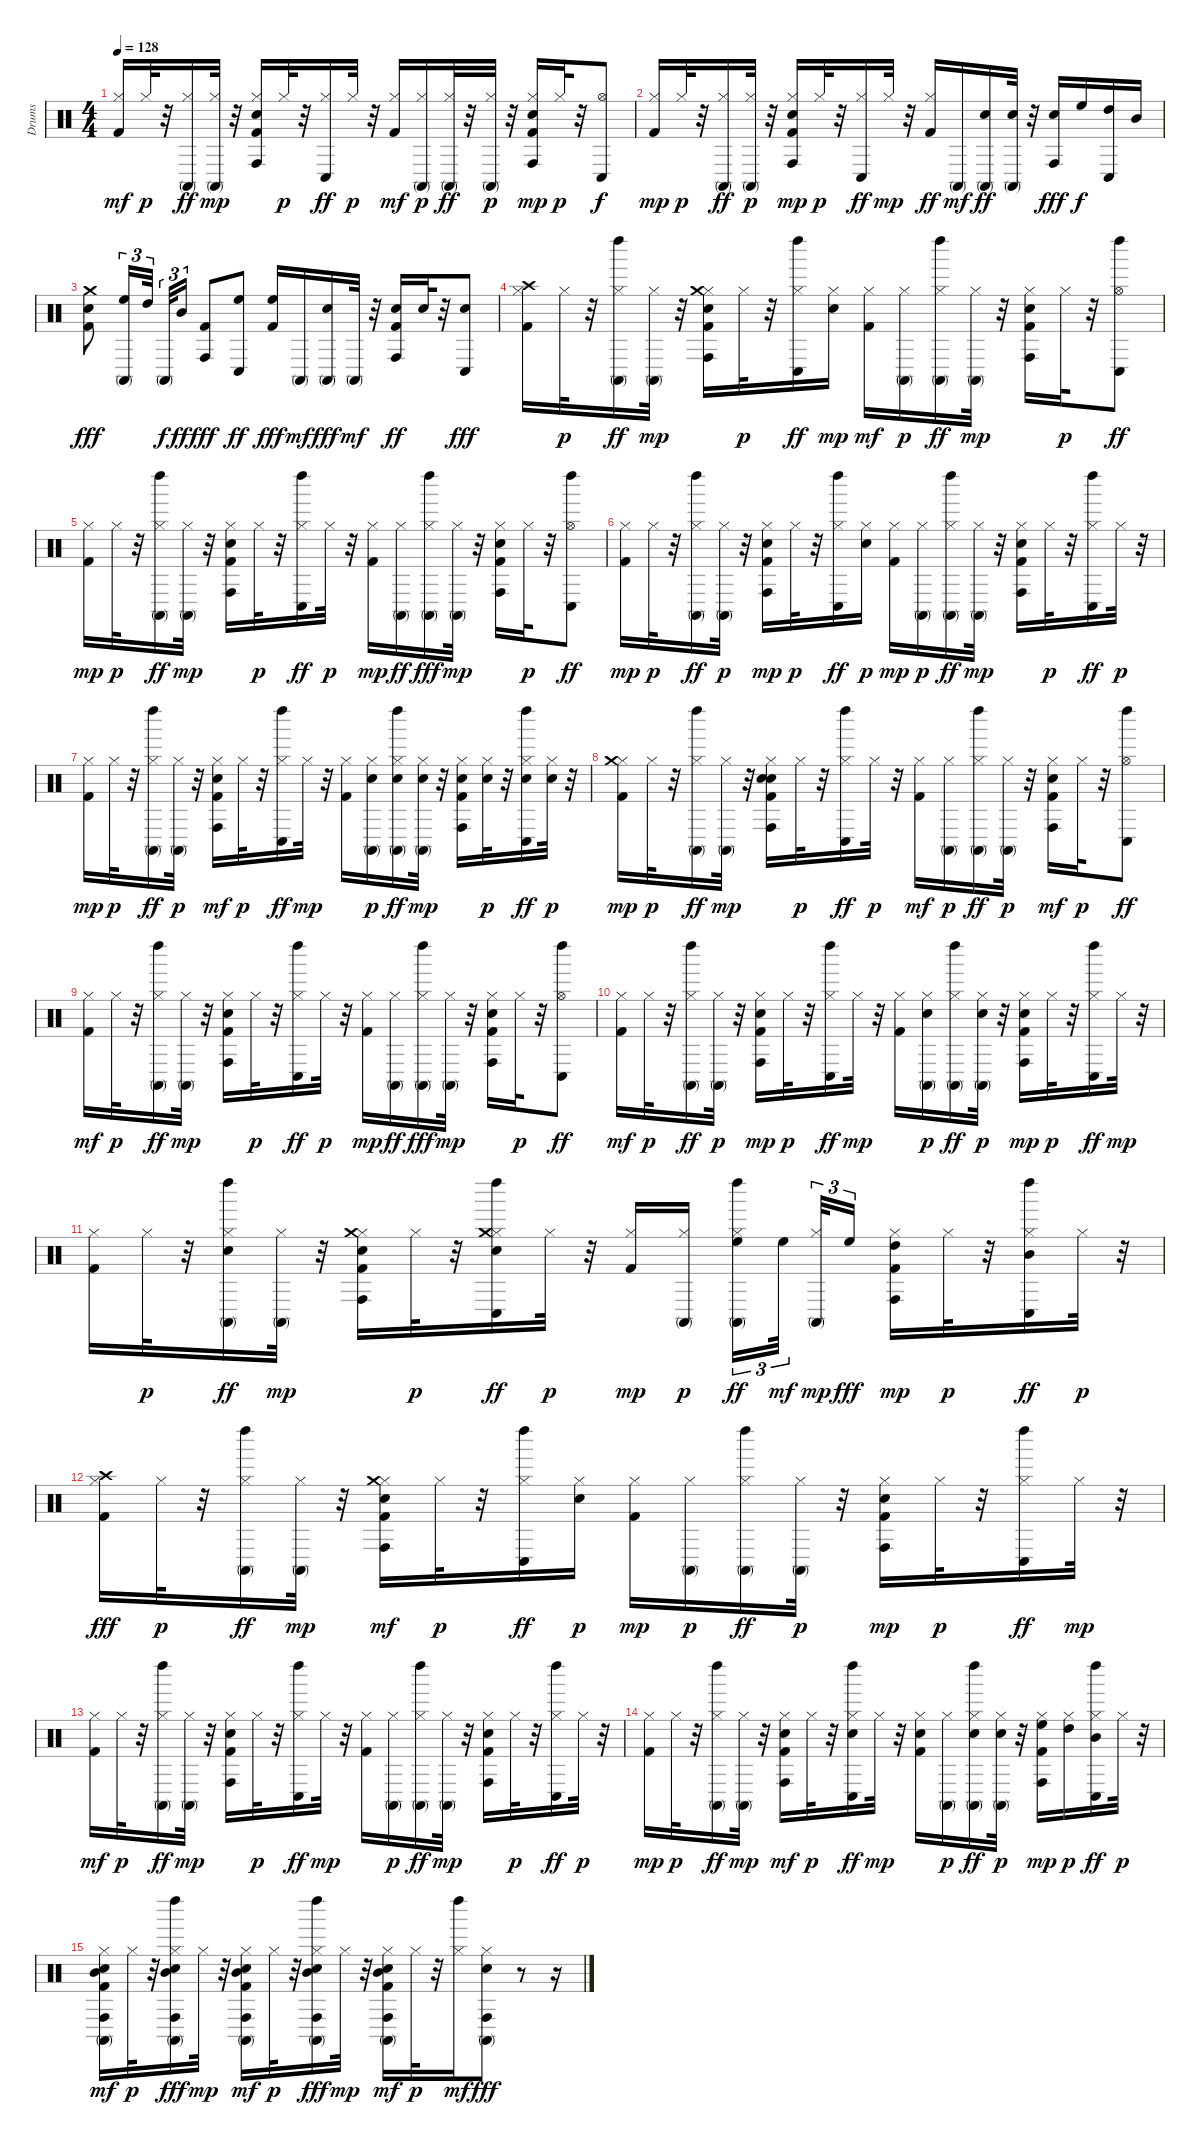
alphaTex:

\track ("Drums" "Drums") {instrument percussion}
\staff {score}
\articulation defaults
\ts (4 4)
\tempo 128
\clef neutral
\ks c
("Kick (hit) 2" "Hi-Hat (closed)").16{dy mf} "Hi-Hat (closed)".32{dy p} r.32 ("Conga high (mute)" "Hi-Hat (closed)").16{dy ff} ("Conga high (mute)" "Hi-Hat (closed)").32{dy mp} r.32 ("Kick (hit) 2" "Conga high (hit)" "Electric Snare (hit)" "Hi-Hat (closed)").16 "Hi-Hat (closed)".32{dy p} r.32 ("Conga low (hit)" "Hi-Hat (closed)").16{dy ff} "Hi-Hat (closed)".32{dy p} r.32 ("Kick (hit) 2" "Hi-Hat (closed)").16{dy mf} ("Conga high (mute)" "Hi-Hat (closed)").16{dy p} ("Conga high (mute)" "Hi-Hat (closed)").32{dy ff} r.32 ("Conga high (mute)" "Hi-Hat (closed)").32{dy p} r.32 ("Kick (hit) 2" "Conga high (hit)" "Electric Snare (hit)" "Hi-Hat (closed)").16{dy mp} "Hi-Hat (closed)".32{dy p} r.32 ("Conga low (hit)" "Hi-Hat (open)").8{dy f} |
("Kick (hit) 2" "Hi-Hat (closed)").16{dy mp} "Hi-Hat (closed)".32{dy p} r.32 ("Conga high (mute)" "Hi-Hat (closed)").16{dy ff} ("Conga high (mute)" "Hi-Hat (closed)").32{dy p} r.32 ("Kick (hit) 2" "Conga high (hit)" "Electric Snare (hit)" "Hi-Hat (closed)").16{dy mp} "Hi-Hat (closed)".32{dy p} r.32 ("Conga low (hit)" "Hi-Hat (closed)").16{dy ff} "Hi-Hat (closed)".32{dy mp} r.32 ("Kick (hit) 2" "Hi-Hat (closed)").16{dy ff} "Conga high (mute)".16{dy mf} ("Conga high (mute)" "Electric Snare (hit)").16{dy ff} ("Conga high (mute)" "Electric Snare (hit)").32 r.32 ("Conga high (hit)" "Electric Snare (hit)").16{dy fff} "High Floor Tom (hit)".16{dy f} ("Conga low (hit)" "High Tom (hit)").16 "Mid Tom (hit)".16 |
("Kick (hit) 2" "Electric Snare (hit)" "Crash medium (hit)").8{dy fff} ("Conga high (mute)" "High Floor Tom (hit)").16{tu (3 2)} "High Tom (hit)".32{tu (3 2) beam splitsecondary} "Conga high (mute)".32{tu (3 2) dy f} "Mid Tom (hit)".16{tu (3 2) dy ff} ("Kick (hit) 2" "Conga high (hit)").8{dy fff} ("Conga low (hit)" "High Floor Tom (hit)").8{dy ff} ("Kick (hit) 2" "High Floor Tom (hit)").16{dy fff} "Conga high (mute)".16{dy mf} ("Conga high (mute)" "Electric Snare (hit)").16{dy fff} "Conga high (mute)".32{dy mf} r.32 ("Kick (hit) 2" "Conga high (hit)" "Electric Snare (hit)").16{dy ff} "Electric Snare (hit)".32 r.32 ("Conga low (hit)" "Electric Snare (hit)").8{dy fff} |
("Kick (hit) 2" "Hi-Hat (closed)" "Crash high (hit)").16 "Hi-Hat (closed)".32{dy p} r.32 ("Conga high (mute)" "Left Maraca (hit)" "Hi-Hat (closed)").16{dy ff} ("Conga high (mute)" "Hi-Hat (closed)").32{dy mp} r.32 ("Kick (hit) 2" "Conga high (hit)" "Electric Snare (hit)" "Hi-Hat (closed)" "Crash medium (hit)").16 "Hi-Hat (closed)".32{dy p} r.32 ("Conga low (hit)" "Left Maraca (hit)" "Hi-Hat (closed)").16{dy ff} ("Electric Snare (hit)" "Hi-Hat (closed)").16{dy mp} ("Kick (hit) 2" "Hi-Hat (closed)").16{dy mf} ("Conga high (mute)" "Hi-Hat (closed)").16{dy p} ("Conga high (mute)" "Left Maraca (hit)" "Hi-Hat (closed)").16{dy ff} ("Conga high (mute)" "Hi-Hat (closed)").32{dy mp} r.32 ("Kick (hit) 2" "Conga high (hit)" "Electric Snare (hit)" "Hi-Hat (closed)").16 "Hi-Hat (closed)".32{dy p} r.32 ("Conga low (hit)" "Left Maraca (hit)" "Hi-Hat (open)").8{dy ff} |
("Kick (hit) 2" "Hi-Hat (closed)").16{dy mp} "Hi-Hat (closed)".32{dy p} r.32 ("Conga high (mute)" "Left Maraca (hit)" "Hi-Hat (closed)").16{dy ff} ("Conga high (mute)" "Hi-Hat (closed)").32{dy mp} r.32 ("Kick (hit) 2" "Conga high (hit)" "Electric Snare (hit)" "Hi-Hat (closed)").16 "Hi-Hat (closed)".32{dy p} r.32 ("Conga low (hit)" "Left Maraca (hit)" "Hi-Hat (closed)").16{dy ff} "Hi-Hat (closed)".32{dy p} r.32 ("Kick (hit) 2" "Hi-Hat (closed)").16{dy mp} ("Conga high (mute)" "Hi-Hat (closed)").16{dy ff} ("Conga high (mute)" "Left Maraca (hit)" "Hi-Hat (closed)").16{dy fff} ("Conga high (mute)" "Hi-Hat (closed)").32{dy mp} r.32 ("Kick (hit) 2" "Conga high (hit)" "Electric Snare (hit)" "Hi-Hat (closed)").16 "Hi-Hat (closed)".32{dy p} r.32 ("Conga low (hit)" "Left Maraca (hit)" "Hi-Hat (open)").8{dy ff} |
("Kick (hit) 2" "Hi-Hat (closed)").16{dy mp} "Hi-Hat (closed)".32{dy p} r.32 ("Conga high (mute)" "Left Maraca (hit)" "Hi-Hat (closed)").16{dy ff} ("Conga high (mute)" "Hi-Hat (closed)").32{dy p} r.32 ("Kick (hit) 2" "Conga high (hit)" "Electric Snare (hit)" "Hi-Hat (closed)").16{dy mp} "Hi-Hat (closed)".32{dy p} r.32 ("Conga low (hit)" "Left Maraca (hit)" "Hi-Hat (closed)").16{dy ff} ("Electric Snare (hit)" "Hi-Hat (closed)").16{dy p} ("Kick (hit) 2" "Hi-Hat (closed)").16{dy mp} ("Conga high (mute)" "Hi-Hat (closed)").16{dy p} ("Conga high (mute)" "Left Maraca (hit)" "Hi-Hat (closed)").16{dy ff} ("Conga high (mute)" "Hi-Hat (closed)").32{dy mp} r.32 ("Kick (hit) 2" "Conga high (hit)" "Electric Snare (hit)" "Hi-Hat (closed)").16 "Hi-Hat (closed)".32{dy p} r.32 ("Conga low (hit)" "Left Maraca (hit)" "Hi-Hat (closed)").16{dy ff} "Hi-Hat (closed)".32{dy p} r.32 |
("Kick (hit) 2" "Hi-Hat (closed)").16{dy mp} "Hi-Hat (closed)".32{dy p} r.32 ("Conga high (mute)" "Left Maraca (hit)" "Hi-Hat (closed)").16{dy ff} ("Conga high (mute)" "Hi-Hat (closed)").32{dy p} r.32 ("Kick (hit) 2" "Conga high (hit)" "Electric Snare (hit)" "Hi-Hat (closed)").16{dy mf} "Hi-Hat (closed)".32{dy p} r.32 ("Conga low (hit)" "Left Maraca (hit)" "Hi-Hat (closed)").16{dy ff} "Hi-Hat (closed)".32{dy mp} r.32 ("Kick (hit) 2" "Hi-Hat (closed)").16 ("Conga high (mute)" "Electric Snare (hit)" "Hi-Hat (closed)").16{dy p} ("Conga high (mute)" "Left Maraca (hit)" "Electric Snare (hit)" "Hi-Hat (closed)").16{dy ff} ("Conga high (mute)" "Electric Snare (hit)" "Hi-Hat (closed)").32{dy mp} r.32 ("Kick (hit) 2" "Conga high (hit)" "Electric Snare (hit)" "Hi-Hat (closed)").16 ("Electric Snare (hit)" "Hi-Hat (closed)").32{dy p} r.32 ("Conga low (hit)" "Left Maraca (hit)" "Electric Snare (hit)" "Hi-Hat (closed)").16{dy ff} ("Electric Snare (hit)" "Hi-Hat (closed)").32{dy p} r.32 |
("Kick (hit) 2" "Hi-Hat (closed)" "Crash medium (hit)").16{dy mp} "Hi-Hat (closed)".32{dy p} r.32 ("Conga high (mute)" "Left Maraca (hit)" "Hi-Hat (closed)").16{dy ff} ("Conga high (mute)" "Hi-Hat (closed)").32{dy mp} r.32 ("Kick (hit) 2" "Hand Clap (hit)" "Conga high (hit)" "Electric Snare (hit)" "Hi-Hat (closed)").16 "Hi-Hat (closed)".32{dy p} r.32 ("Conga low (hit)" "Left Maraca (hit)" "Hi-Hat (closed)").16{dy ff} "Hi-Hat (closed)".32{dy p} r.32 ("Kick (hit) 2" "Hi-Hat (closed)").16{dy mf} ("Conga high (mute)" "Hi-Hat (closed)").16{dy p} ("Conga high (mute)" "Left Maraca (hit)" "Hi-Hat (closed)").16{dy ff} ("Conga high (mute)" "Hi-Hat (closed)").32{dy p} r.32 ("Kick (hit) 2" "Conga high (hit)" "Electric Snare (hit)" "Hi-Hat (closed)").16{dy mf} "Hi-Hat (closed)".32{dy p} r.32 ("Conga low (hit)" "Left Maraca (hit)" "Hi-Hat (open)").8{dy ff} |
("Kick (hit) 2" "Hi-Hat (closed)").16{dy mf} "Hi-Hat (closed)".32{dy p} r.32 ("Conga high (mute)" "Left Maraca (hit)" "Hi-Hat (closed)").16{dy ff} ("Conga high (mute)" "Hi-Hat (closed)").32{dy mp} r.32 ("Kick (hit) 2" "Conga high (hit)" "Electric Snare (hit)" "Hi-Hat (closed)").16 "Hi-Hat (closed)".32{dy p} r.32 ("Conga low (hit)" "Left Maraca (hit)" "Hi-Hat (closed)").16{dy ff} "Hi-Hat (closed)".32{dy p} r.32 ("Kick (hit) 2" "Hi-Hat (closed)").16{dy mp} ("Conga high (mute)" "Hi-Hat (closed)").16{dy ff} ("Conga high (mute)" "Left Maraca (hit)" "Hi-Hat (closed)").16{dy fff} ("Conga high (mute)" "Hi-Hat (closed)").32{dy mp} r.32 ("Kick (hit) 2" "Conga high (hit)" "Electric Snare (hit)" "Hi-Hat (closed)").16 "Hi-Hat (closed)".32{dy p} r.32 ("Conga low (hit)" "Left Maraca (hit)" "Hi-Hat (open)").8{dy ff} |
("Kick (hit) 2" "Hi-Hat (closed)").16{dy mf} "Hi-Hat (closed)".32{dy p} r.32 ("Conga high (mute)" "Left Maraca (hit)" "Hi-Hat (closed)").16{dy ff} ("Conga high (mute)" "Hi-Hat (closed)").32{dy p} r.32 ("Kick (hit) 2" "Conga high (hit)" "Electric Snare (hit)" "Hi-Hat (closed)").16{dy mp} "Hi-Hat (closed)".32{dy p} r.32 ("Conga low (hit)" "Left Maraca (hit)" "Hi-Hat (closed)").16{dy ff} "Hi-Hat (closed)".32{dy mp} r.32 ("Kick (hit) 2" "Hi-Hat (closed)").16 ("Conga high (mute)" "Electric Snare (hit)" "Hi-Hat (closed)").16{dy p} ("Conga high (mute)" "Left Maraca (hit)" "Hi-Hat (closed)").16{dy ff} ("Conga high (mute)" "Electric Snare (hit)" "Hi-Hat (closed)").32{dy p} r.32 ("Kick (hit) 2" "Conga high (hit)" "Electric Snare (hit)" "Hi-Hat (closed)").16{dy mp} "Hi-Hat (closed)".32{dy p} r.32 ("Conga low (hit)" "Left Maraca (hit)" "Hi-Hat (closed)").16{dy ff} "Hi-Hat (closed)".32{dy mp} r.32 |
("Kick (hit) 2" "Hi-Hat (closed)").16 "Hi-Hat (closed)".32{dy p} r.32 ("Conga high (mute)" "Left Maraca (hit)" "Electric Snare (hit)" "Hi-Hat (closed)").16{dy ff} ("Conga high (mute)" "Hi-Hat (closed)").32{dy mp} r.32 ("Kick (hit) 2" "Conga high (hit)" "Electric Snare (hit)" "Hi-Hat (closed)" "Crash medium (hit)").16 "Hi-Hat (closed)".32{dy p} r.32 ("Conga low (hit)" "Left Maraca (hit)" "Electric Snare (hit)" "Hi-Hat (closed)" "Crash medium (hit)").16{dy ff} "Hi-Hat (closed)".32{dy p} r.32 ("Kick (hit) 2" "Hi-Hat (closed)").16{dy mp} ("Conga high (mute)" "Hi-Hat (closed)").16{dy p beam splitsecondary} ("Conga high (mute)" "Left Maraca (hit)" "High Floor Tom (hit)" "Hi-Hat (closed)").16{tu (3 2) dy ff} "High Floor Tom (hit)".32{tu (3 2) dy mf beam splitsecondary} ("Conga high (mute)" "Hi-Hat (closed)").32{tu (3 2) dy mp} "High Floor Tom (hit)".16{tu (3 2) dy fff} ("Kick (hit) 2" "Conga high (hit)" "High Tom (hit)" "Hi-Hat (closed)").16{dy mp} "Hi-Hat (closed)".32{dy p} r.32 ("Conga low (hit)" "Left Maraca (hit)" "Mid Tom (hit)" "Hi-Hat (closed)").16{dy ff} "Hi-Hat (closed)".32{dy p} r.32 |
("Kick (hit) 2" "Hi-Hat (closed)" "Crash high (hit)").16{dy fff} "Hi-Hat (closed)".32{dy p} r.32 ("Conga high (mute)" "Left Maraca (hit)" "Hi-Hat (closed)").16{dy ff} ("Conga high (mute)" "Hi-Hat (closed)").32{dy mp} r.32 ("Kick (hit) 2" "Conga high (hit)" "Electric Snare (hit)" "Hi-Hat (closed)" "Crash medium (hit)").16{dy mf} "Hi-Hat (closed)".32{dy p} r.32 ("Conga low (hit)" "Left Maraca (hit)" "Hi-Hat (closed)").16{dy ff} ("Electric Snare (hit)" "Hi-Hat (closed)").16{dy p} ("Kick (hit) 2" "Hi-Hat (closed)").16{dy mp} ("Conga high (mute)" "Hi-Hat (closed)").16{dy p} ("Conga high (mute)" "Left Maraca (hit)" "Hi-Hat (closed)").16{dy ff} ("Conga high (mute)" "Hi-Hat (closed)").32{dy p} r.32 ("Kick (hit) 2" "Conga high (hit)" "Electric Snare (hit)" "Hi-Hat (closed)").16{dy mp} "Hi-Hat (closed)".32{dy p} r.32 ("Conga low (hit)" "Left Maraca (hit)" "Hi-Hat (closed)").16{dy ff} "Hi-Hat (closed)".32{dy mp} r.32 |
("Kick (hit) 2" "Hi-Hat (closed)").16{dy mf} "Hi-Hat (closed)".32{dy p} r.32 ("Conga high (mute)" "Left Maraca (hit)" "Hi-Hat (closed)").16{dy ff} ("Conga high (mute)" "Hi-Hat (closed)").32{dy mp} r.32 ("Kick (hit) 2" "Conga high (hit)" "Electric Snare (hit)" "Hi-Hat (closed)").16 "Hi-Hat (closed)".32{dy p} r.32 ("Conga low (hit)" "Left Maraca (hit)" "Hi-Hat (closed)").16{dy ff} "Hi-Hat (closed)".32{dy mp} r.32 ("Kick (hit) 2" "Hi-Hat (closed)").16 ("Conga high (mute)" "Hi-Hat (closed)").16{dy p} ("Conga high (mute)" "Left Maraca (hit)" "Hi-Hat (closed)").16{dy ff} ("Conga high (mute)" "Hi-Hat (closed)").32{dy mp} r.32 ("Kick (hit) 2" "Conga high (hit)" "Electric Snare (hit)" "Hi-Hat (closed)").16 "Hi-Hat (closed)".32{dy p} r.32 ("Conga low (hit)" "Left Maraca (hit)" "Hi-Hat (closed)").16{dy ff} "Hi-Hat (closed)".32{dy p} r.32 |
("Kick (hit) 2" "Hi-Hat (closed)").16{dy mp} "Hi-Hat (closed)".32{dy p} r.32 ("Conga high (mute)" "Left Maraca (hit)" "Hi-Hat (closed)").16{dy ff} ("Conga high (mute)" "Hi-Hat (closed)").32{dy mp} r.32 ("Kick (hit) 2" "Conga high (hit)" "Electric Snare (hit)" "Hi-Hat (closed)").16{dy mf} "Hi-Hat (closed)".32{dy p} r.32 ("Conga low (hit)" "Left Maraca (hit)" "Electric Snare (hit)" "Hi-Hat (closed)").16{dy ff} "Hi-Hat (closed)".32{dy mp} r.32 ("Kick (hit) 2" "Electric Snare (hit)" "Hi-Hat (closed)").16 ("Conga high (mute)" "Hi-Hat (closed)").16{dy p} ("Conga high (mute)" "Left Maraca (hit)" "Electric Snare (hit)" "Hi-Hat (closed)").16{dy ff} ("Conga high (mute)" "Electric Snare (hit)" "Hi-Hat (closed)").32{dy p} r.32 ("Kick (hit) 2" "Conga high (hit)" "High Floor Tom (hit)" "Hi-Hat (closed)").16{dy mp} ("High Tom (hit)" "Hi-Hat (closed)").16{dy p} ("Conga low (hit)" "Left Maraca (hit)" "Mid Tom (hit)" "Hi-Hat (closed)").16{dy ff} "Hi-Hat (closed)".32{dy p} r.32 |
("Kick (hit) 2" "Conga high (mute)" "Conga high (hit)" "Electric Snare (hit)" "Mid Tom (hit)" "Hi-Hat (closed)").16{dy mf} "Hi-Hat (closed)".32{dy p} r.32 ("Conga high (hit)" "Conga high (mute)" "Left Maraca (hit)" "Electric Snare (hit)" "Mid Tom (hit)" "Hi-Hat (closed)").16{dy fff} "Hi-Hat (closed)".32{dy mp} r.32 ("Kick (hit) 2" "Conga high (mute)" "Conga high (hit)" "Electric Snare (hit)" "Mid Tom (hit)" "Hi-Hat (closed)").16{dy mf} "Hi-Hat (closed)".32{dy p} r.32 ("Conga high (hit)" "Conga high (mute)" "Left Maraca (hit)" "Electric Snare (hit)" "Mid Tom (hit)" "Hi-Hat (closed)").16{dy fff} "Hi-Hat (closed)".32{dy mp} r.32 ("Kick (hit) 2" "Conga high (mute)" "Conga high (hit)" "Electric Snare (hit)" "Mid Tom (hit)" "Hi-Hat (closed)").16{dy mf} "Hi-Hat (closed)".32{dy p} r.32 ("Left Maraca (hit)" "Hi-Hat (closed)").16{dy mf} ("Conga high (mute)" "Conga high (hit)" "Electric Snare (hit)" "Hi-Hat (closed)").8{dy fff} r.8 r.16
